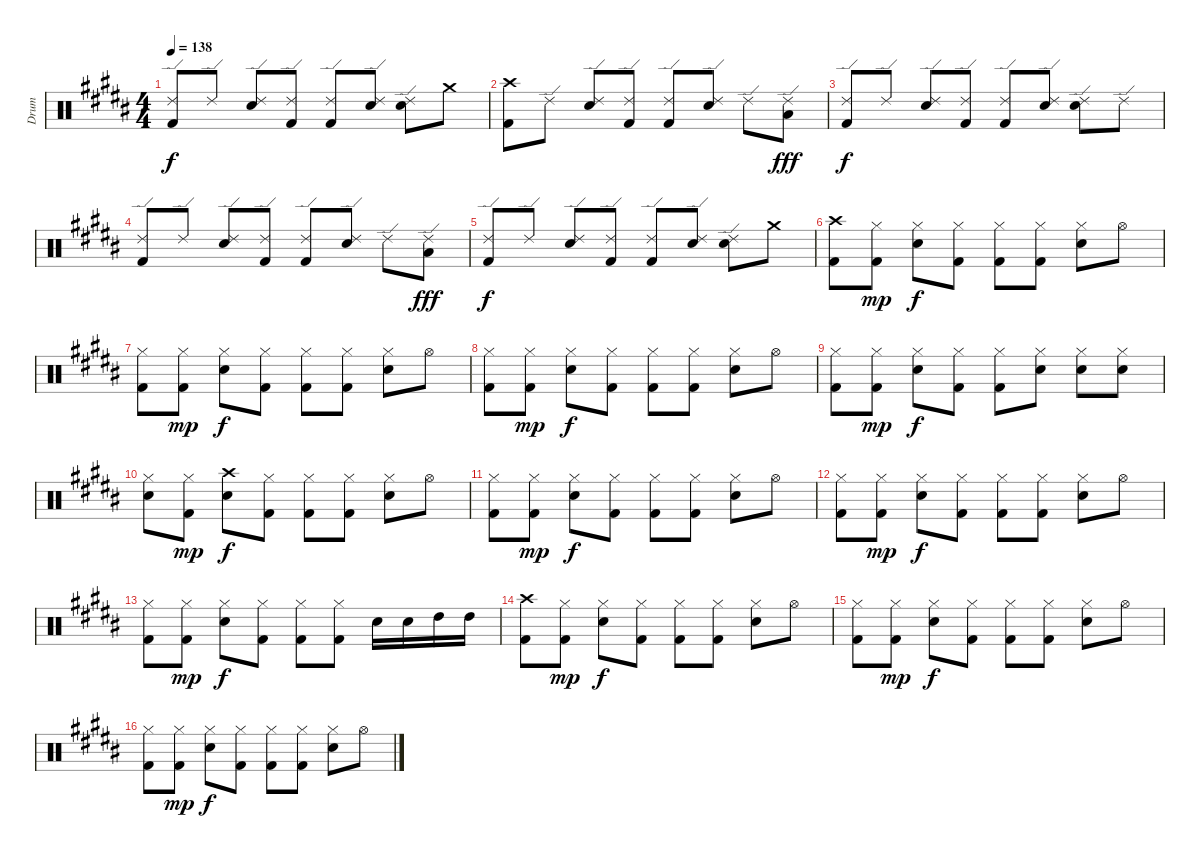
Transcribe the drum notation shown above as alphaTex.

\track ("Drum" "Drum") {instrument percussion}
\staff {score}
\articulation defaults
\ts (4 4)
\tempo 138
\clef neutral
\ks g#minor
("Ride (edge) 2" "Kick (hit) 2").8{dy f} "Ride (edge) 2".8 ("Ride (edge) 2" "Electric Snare (hit)").8 ("Ride (edge) 2" "Kick (hit) 2").8 ("Ride (edge) 2" "Kick (hit) 2").8 ("Ride (edge) 2" "Electric Snare (hit)").8 ("Ride (edge) 2" "Electric Snare (hit)").8 "Crash medium (hit)".8 |
\ks b
("Crash high (hit)" "Kick (hit) 2").8 "Ride (edge) 2".8 ("Ride (edge) 2" "Electric Snare (hit)").8 ("Ride (edge) 2" "Kick (hit) 2").8 ("Ride (edge) 2" "Kick (hit) 2").8 ("Ride (edge) 2" "Electric Snare (hit)").8 "Ride (edge) 2".8 ("Ride (edge) 2" "Low Floor Tom (hit)").8{dy fff} |
\ks g#minor
("Ride (edge) 2" "Kick (hit) 2").8{dy f} "Ride (edge) 2".8 ("Ride (edge) 2" "Electric Snare (hit)").8 ("Ride (edge) 2" "Kick (hit) 2").8 ("Ride (edge) 2" "Kick (hit) 2").8 ("Ride (edge) 2" "Electric Snare (hit)").8 ("Ride (edge) 2" "Electric Snare (hit)").8 "Ride (edge) 2".8 |
("Ride (edge) 2" "Kick (hit) 2").8 "Ride (edge) 2".8 ("Ride (edge) 2" "Electric Snare (hit)").8 ("Ride (edge) 2" "Kick (hit) 2").8 ("Ride (edge) 2" "Kick (hit) 2").8 ("Ride (edge) 2" "Electric Snare (hit)").8 "Ride (edge) 2".8 ("Ride (edge) 2" "Low Floor Tom (hit)").8{dy fff} |
("Ride (edge) 2" "Kick (hit) 2").8{dy f} "Ride (edge) 2".8 ("Ride (edge) 2" "Electric Snare (hit)").8 ("Ride (edge) 2" "Kick (hit) 2").8 ("Ride (edge) 2" "Kick (hit) 2").8 ("Ride (edge) 2" "Electric Snare (hit)").8 ("Ride (edge) 2" "Electric Snare (hit)").8 "Crash medium (hit)".8 |
\ks b
("Crash high (hit)" "Kick (hit) 2").8 ("Hi-Hat (closed)" "Kick (hit) 2").8{dy mp} ("Hi-Hat (closed)" "Electric Snare (hit)").8{dy f} ("Hi-Hat (closed)" "Kick (hit) 2").8 ("Hi-Hat (closed)" "Kick (hit) 2").8 ("Hi-Hat (closed)" "Kick (hit) 2").8 ("Hi-Hat (closed)" "Electric Snare (hit)").8 "Hi-Hat (open)".8 |
\ks g#minor
("Hi-Hat (closed)" "Kick (hit) 2").8 ("Hi-Hat (closed)" "Kick (hit) 2").8{dy mp} ("Hi-Hat (closed)" "Electric Snare (hit)").8{dy f} ("Hi-Hat (closed)" "Kick (hit) 2").8 ("Hi-Hat (closed)" "Kick (hit) 2").8 ("Hi-Hat (closed)" "Kick (hit) 2").8 ("Hi-Hat (closed)" "Electric Snare (hit)").8 "Hi-Hat (open)".8 |
\ks b
("Hi-Hat (closed)" "Kick (hit) 2").8 ("Hi-Hat (closed)" "Kick (hit) 2").8{dy mp} ("Hi-Hat (closed)" "Electric Snare (hit)").8{dy f} ("Hi-Hat (closed)" "Kick (hit) 2").8 ("Hi-Hat (closed)" "Kick (hit) 2").8 ("Hi-Hat (closed)" "Kick (hit) 2").8 ("Hi-Hat (closed)" "Electric Snare (hit)").8 "Hi-Hat (open)".8 |
\ks g#minor
("Hi-Hat (closed)" "Kick (hit) 2").8 ("Hi-Hat (closed)" "Kick (hit) 2").8{dy mp} ("Hi-Hat (closed)" "Electric Snare (hit)").8{dy f} ("Hi-Hat (closed)" "Kick (hit) 2").8 ("Hi-Hat (closed)" "Kick (hit) 2").8 ("Hi-Hat (closed)" "Electric Snare (hit)").8 ("Hi-Hat (closed)" "Electric Snare (hit)").8 ("Hi-Hat (closed)" "Electric Snare (hit)").8 |
\ks b
("Hi-Hat (closed)" "Electric Snare (hit)").8 ("Hi-Hat (closed)" "Kick (hit) 2").8{dy mp} ("Crash high (hit)" "Electric Snare (hit)").8{dy f} ("Hi-Hat (closed)" "Kick (hit) 2").8 ("Hi-Hat (closed)" "Kick (hit) 2").8 ("Hi-Hat (closed)" "Kick (hit) 2").8 ("Hi-Hat (closed)" "Electric Snare (hit)").8 "Hi-Hat (open)".8 |
\ks g#minor
("Hi-Hat (closed)" "Kick (hit) 2").8 ("Hi-Hat (closed)" "Kick (hit) 2").8{dy mp} ("Hi-Hat (closed)" "Electric Snare (hit)").8{dy f} ("Hi-Hat (closed)" "Kick (hit) 2").8 ("Hi-Hat (closed)" "Kick (hit) 2").8 ("Hi-Hat (closed)" "Kick (hit) 2").8 ("Hi-Hat (closed)" "Electric Snare (hit)").8 "Hi-Hat (open)".8 |
\ks b
("Hi-Hat (closed)" "Kick (hit) 2").8 ("Hi-Hat (closed)" "Kick (hit) 2").8{dy mp} ("Hi-Hat (closed)" "Electric Snare (hit)").8{dy f} ("Hi-Hat (closed)" "Kick (hit) 2").8 ("Hi-Hat (closed)" "Kick (hit) 2").8 ("Hi-Hat (closed)" "Kick (hit) 2").8 ("Hi-Hat (closed)" "Electric Snare (hit)").8 "Hi-Hat (open)".8 |
\ks g#minor
("Hi-Hat (closed)" "Kick (hit) 2").8 ("Hi-Hat (closed)" "Kick (hit) 2").8{dy mp} ("Hi-Hat (closed)" "Electric Snare (hit)").8{dy f} ("Hi-Hat (closed)" "Kick (hit) 2").8 ("Hi-Hat (closed)" "Kick (hit) 2").8 ("Hi-Hat (closed)" "Kick (hit) 2").8 "Electric Snare (hit)".16 "Electric Snare (hit)".16 "High Tom (hit)".16 "High Tom (hit)".16 |
\ks b
("Crash high (hit)" "Kick (hit) 2").8 ("Hi-Hat (closed)" "Kick (hit) 2").8{dy mp} ("Hi-Hat (closed)" "Electric Snare (hit)").8{dy f} ("Hi-Hat (closed)" "Kick (hit) 2").8 ("Hi-Hat (closed)" "Kick (hit) 2").8 ("Hi-Hat (closed)" "Kick (hit) 2").8 ("Hi-Hat (closed)" "Electric Snare (hit)").8 "Hi-Hat (open)".8 |
\ks g#minor
("Hi-Hat (closed)" "Kick (hit) 2").8 ("Hi-Hat (closed)" "Kick (hit) 2").8{dy mp} ("Hi-Hat (closed)" "Electric Snare (hit)").8{dy f} ("Hi-Hat (closed)" "Kick (hit) 2").8 ("Hi-Hat (closed)" "Kick (hit) 2").8 ("Hi-Hat (closed)" "Kick (hit) 2").8 ("Hi-Hat (closed)" "Electric Snare (hit)").8 "Hi-Hat (open)".8 |
\ks b
("Hi-Hat (closed)" "Kick (hit) 2").8 ("Hi-Hat (closed)" "Kick (hit) 2").8{dy mp} ("Hi-Hat (closed)" "Electric Snare (hit)").8{dy f} ("Hi-Hat (closed)" "Kick (hit) 2").8 ("Hi-Hat (closed)" "Kick (hit) 2").8 ("Hi-Hat (closed)" "Kick (hit) 2").8 ("Hi-Hat (closed)" "Electric Snare (hit)").8 "Hi-Hat (open)".8
